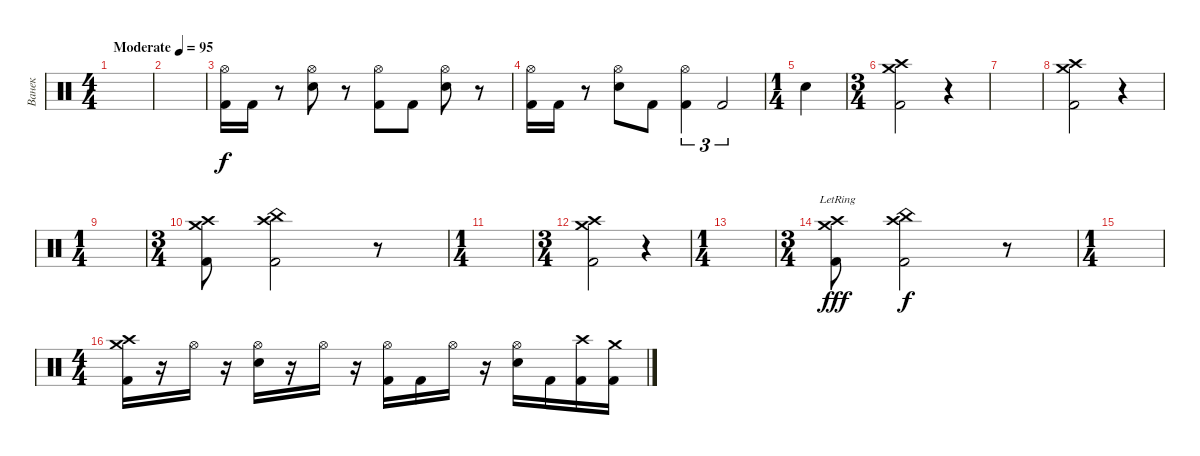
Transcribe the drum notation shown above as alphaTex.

\track ("Ванек" "Ванек") {instrument percussion}
\staff {score}
\articulation defaults
\ts (4 4)
\tempo (95 "Moderate")
\clef neutral
\ks c
|
|
("Hi-Hat (open)" "Kick (hit) 2").16 "Kick (hit) 2".16 r.8 ("Hi-Hat (open)" "Snare (hit) 2").8 r.8 ("Hi-Hat (open)" "Kick (hit) 2").8 "Kick (hit) 2".8 ("Hi-Hat (open)" "Snare (hit) 2").8 r.8 |
("Hi-Hat (open)" "Kick (hit) 2").16 "Kick (hit) 2".16 r.8 ("Hi-Hat (open)" "Snare (hit) 2").8 "Kick (hit) 2".8 ("Hi-Hat (open)" "Kick (hit) 2").4{tu (3 2)} "Kick (hit) 2".2{tu (3 2)} |
\ts (1 4)
"Snare (hit) 2".4 |
\ts (3 4)
("Crash medium (hit)" "Crash high (hit)" "Kick (hit) 2").2 r.4 |
|
("Crash medium (hit)" "Crash high (hit)" "Kick (hit) 2").2 r.4 |
\ts (1 4)
|
\ts (3 4)
("Crash high (hit)" "Crash medium (hit)" "Kick (hit) 2").8 ("Crash high (hit)" "China (hit)" "Kick (hit) 2").2 r.8 |
\ts (1 4)
|
\ts (3 4)
("Crash high (hit)" "Crash medium (hit)" "Kick (hit) 2").2 r.4 |
\ts (1 4)
|
\ts (3 4)
("Crash high (hit)"{lr} "Crash medium (hit)"{lr} "Kick (hit) 2").8{dy fff} ("Crash high (hit)" "China (hit)" "Kick (hit) 2").2{dy f} r.8 |
\ts (1 4)
|
\ts (4 4)
("Crash high (hit)" "Crash medium (hit)" "Kick (hit) 2").16 r.16 "Hi-Hat (open)".16 r.16 ("Hi-Hat (open)" "Snare (hit) 2").16 r.16 "Hi-Hat (open)".16 r.16 ("Hi-Hat (open)" "Kick (hit) 2").16 "Kick (hit) 2".16 "Hi-Hat (open)".16 r.16 ("Hi-Hat (open)" "Snare (hit) 2").16 "Kick (hit) 2".16 ("Crash high (hit)" "Kick (hit) 2").16 ("Crash medium (hit)" "Kick (hit) 2").16
